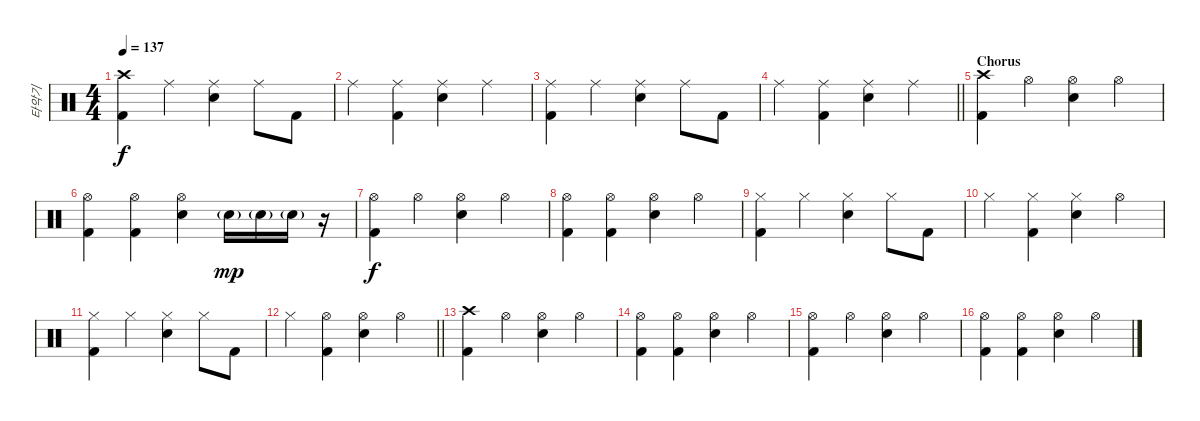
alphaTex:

\track ("타악기" "타악기") {instrument percussion}
\staff {score}
\articulation defaults
\ts (4 4)
\tempo 137
\clef neutral
\ks c
("Crash high (hit)" "Kick (hit) 2").4{dy f} "Ride (middle)".4 ("Ride (middle)" "Electric Snare (hit)").4 "Ride (middle)".8 "Kick (hit) 2".8 |
"Ride (middle)".4 ("Ride (middle)" "Kick (hit) 2").4 ("Ride (middle)" "Electric Snare (hit)").4 "Ride (middle)".4 |
("Ride (middle)" "Kick (hit) 2").4 "Ride (middle)".4 ("Ride (middle)" "Electric Snare (hit)").4 "Ride (middle)".8 "Kick (hit) 2".8 |
\barLineRight lightlight "Ride (middle)".4
("Ride (middle)" "Kick (hit) 2").4 ("Ride (middle)" "Electric Snare (hit)").4 "Ride (middle)".4 |
\section ("" "Chorus")
("Crash high (hit)" "Kick (hit) 2").4 "Hi-Hat (open)".4 ("Hi-Hat (open)" "Electric Snare (hit)").4 "Hi-Hat (open)".4 |
("Hi-Hat (open)" "Kick (hit) 2").4 ("Hi-Hat (open)" "Kick (hit) 2").4 ("Hi-Hat (open)" "Electric Snare (hit)").4 "Electric Snare (hit)"{g}.16{dy mp} "Electric Snare (hit)"{g}.16 "Electric Snare (hit)"{g}.16 r.16 |
("Hi-Hat (open)" "Kick (hit) 2").4{dy f} "Hi-Hat (open)".4 ("Hi-Hat (open)" "Electric Snare (hit)").4 "Hi-Hat (open)".4 |
("Hi-Hat (open)" "Kick (hit) 2").4 ("Hi-Hat (open)" "Kick (hit) 2").4 ("Hi-Hat (open)" "Electric Snare (hit)").4 "Hi-Hat (open)".4 |
("Hi-Hat (closed)" "Kick (hit) 2").4 "Hi-Hat (closed)".4 ("Hi-Hat (closed)" "Electric Snare (hit)").4 "Hi-Hat (closed)".8 "Kick (hit) 2".8 |
"Hi-Hat (closed)".4 ("Hi-Hat (closed)" "Kick (hit) 2").4 ("Hi-Hat (closed)" "Electric Snare (hit)").4 "Hi-Hat (open)".4 |
("Hi-Hat (closed)" "Kick (hit) 2").4 "Hi-Hat (closed)".4 ("Hi-Hat (closed)" "Electric Snare (hit)").4 "Hi-Hat (closed)".8 "Kick (hit) 2".8 |
\barLineRight lightlight "Hi-Hat (closed)".4
("Hi-Hat (open)" "Kick (hit) 2").4 ("Hi-Hat (open)" "Electric Snare (hit)").4 "Hi-Hat (open)".4 |
("Crash high (hit)" "Kick (hit) 2").4 "Hi-Hat (open)".4 ("Hi-Hat (open)" "Electric Snare (hit)").4 "Hi-Hat (open)".4 |
("Hi-Hat (open)" "Kick (hit) 2").4 ("Hi-Hat (open)" "Kick (hit) 2").4 ("Hi-Hat (open)" "Electric Snare (hit)").4 "Hi-Hat (open)".4 |
("Hi-Hat (open)" "Kick (hit) 2").4 "Hi-Hat (open)".4 ("Hi-Hat (open)" "Electric Snare (hit)").4 "Hi-Hat (open)".4 |
("Hi-Hat (open)" "Kick (hit) 2").4 ("Hi-Hat (open)" "Kick (hit) 2").4 ("Hi-Hat (open)" "Electric Snare (hit)").4 "Hi-Hat (open)".4
